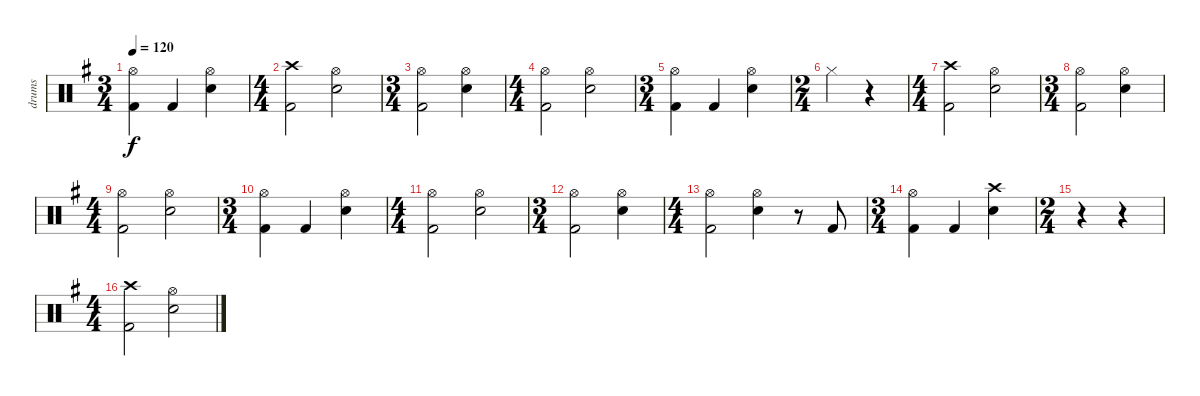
\track ("drums" "drums") {instrument percussion}
\staff {score}
\articulation defaults
\ts (3 4)
\tempo 120
\clef neutral
\ks g
("Hi-Hat (open)" "Kick (hit) 2").4{dy f} "Kick (hit) 2".4 ("Hi-Hat (open)" "Snare (hit) 2").4 |
\ts (4 4)
("Crash high (hit)" "Kick (hit) 2").2 ("Hi-Hat (open)" "Snare (hit) 2").2 |
\ts (3 4)
("Hi-Hat (open)" "Kick (hit) 2").2 ("Hi-Hat (open)" "Snare (hit) 2").4 |
\ts (4 4)
("Hi-Hat (open)" "Kick (hit) 2").2 ("Hi-Hat (open)" "Snare (hit) 2").2 |
\ts (3 4)
("Hi-Hat (open)" "Kick (hit) 2").4 "Kick (hit) 2".4 ("Hi-Hat (open)" "Snare (hit) 2").4 |
\ts (2 4)
"Hi-Hat (closed)".4 r.4 |
\ts (4 4)
("Crash high (hit)" "Kick (hit) 2").2 ("Hi-Hat (open)" "Snare (hit) 2").2 |
\ts (3 4)
("Hi-Hat (open)" "Kick (hit) 2").2 ("Hi-Hat (open)" "Snare (hit) 2").4 |
\ts (4 4)
("Hi-Hat (open)" "Kick (hit) 2").2 ("Hi-Hat (open)" "Snare (hit) 2").2 |
\ts (3 4)
("Hi-Hat (open)" "Kick (hit) 2").4 "Kick (hit) 2".4 ("Hi-Hat (open)" "Snare (hit) 2").4 |
\ts (4 4)
("Hi-Hat (open)" "Kick (hit) 2").2 ("Hi-Hat (open)" "Snare (hit) 2").2 |
\ts (3 4)
("Hi-Hat (open)" "Kick (hit) 2").2 ("Hi-Hat (open)" "Snare (hit) 2").4 |
\ts (4 4)
("Hi-Hat (open)" "Kick (hit) 2").2 ("Hi-Hat (open)" "Snare (hit) 2").4 r.8 "Kick (hit) 2".8 |
\ts (3 4)
("Hi-Hat (open)" "Kick (hit) 2").4 "Kick (hit) 2".4 ("Crash high (hit)" "Snare (hit) 2").4 |
\ts (2 4)
r.4 r.4 |
\ts (4 4)
("Crash high (hit)" "Kick (hit) 2").2 ("Hi-Hat (open)" "Snare (hit) 2").2
